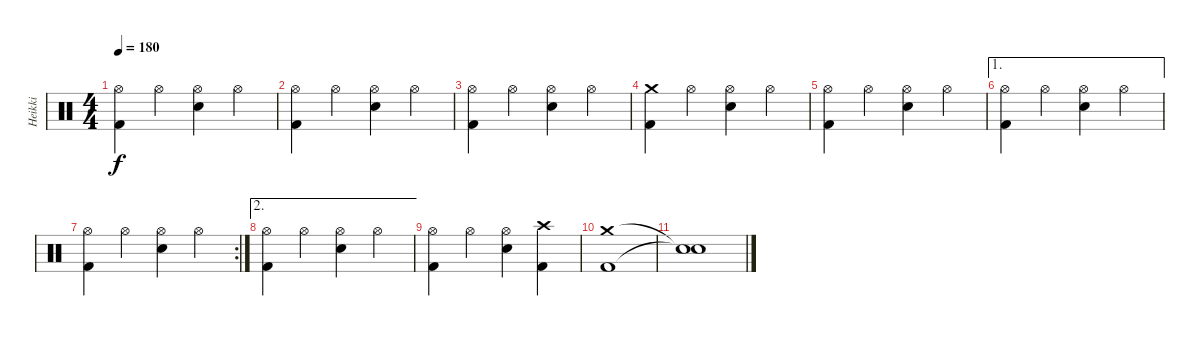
\track ("Heikki" "Heikki") {instrument percussion}
\staff {score}
\articulation defaults
\ts (4 4)
\tempo 180
\clef neutral
\ks c
("Hi-Hat (open)" "Kick (hit) 2").4{dy f} "Hi-Hat (open)".4 ("Hi-Hat (open)" "Electric Snare (hit)").4 "Hi-Hat (open)".4 |
("Hi-Hat (open)" "Kick (hit) 2").4 "Hi-Hat (open)".4 ("Hi-Hat (open)" "Electric Snare (hit)").4 "Hi-Hat (open)".4 |
("Hi-Hat (open)" "Kick (hit) 2").4 "Hi-Hat (open)".4 ("Hi-Hat (open)" "Electric Snare (hit)").4 "Hi-Hat (open)".4 |
("Crash medium (hit)" "Kick (hit) 2").4 "Hi-Hat (open)".4 ("Hi-Hat (open)" "Electric Snare (hit)").4 "Hi-Hat (open)".4 |
("Hi-Hat (open)" "Kick (hit) 2").4 "Hi-Hat (open)".4 ("Hi-Hat (open)" "Electric Snare (hit)").4 "Hi-Hat (open)".4 |
\ae 1
("Hi-Hat (open)" "Kick (hit) 2").4 "Hi-Hat (open)".4 ("Hi-Hat (open)" "Electric Snare (hit)").4 "Hi-Hat (open)".4 |
\rc 2
("Hi-Hat (open)" "Kick (hit) 2").4 "Hi-Hat (open)".4 ("Hi-Hat (open)" "Electric Snare (hit)").4 "Hi-Hat (open)".4 |
\ae 2
("Hi-Hat (open)" "Kick (hit) 2").4 "Hi-Hat (open)".4 ("Hi-Hat (open)" "Electric Snare (hit)").4 "Hi-Hat (open)".4 |
("Hi-Hat (open)" "Kick (hit) 2").4 "Hi-Hat (open)".4 ("Hi-Hat (open)" "Electric Snare (hit)").4 ("Crash high (hit)" "Kick (hit) 2").4 |
("Crash medium (hit)" "Kick (hit) 2").1 |
("Snare (hit)"{t} "Snare (hit)"{t}).1
